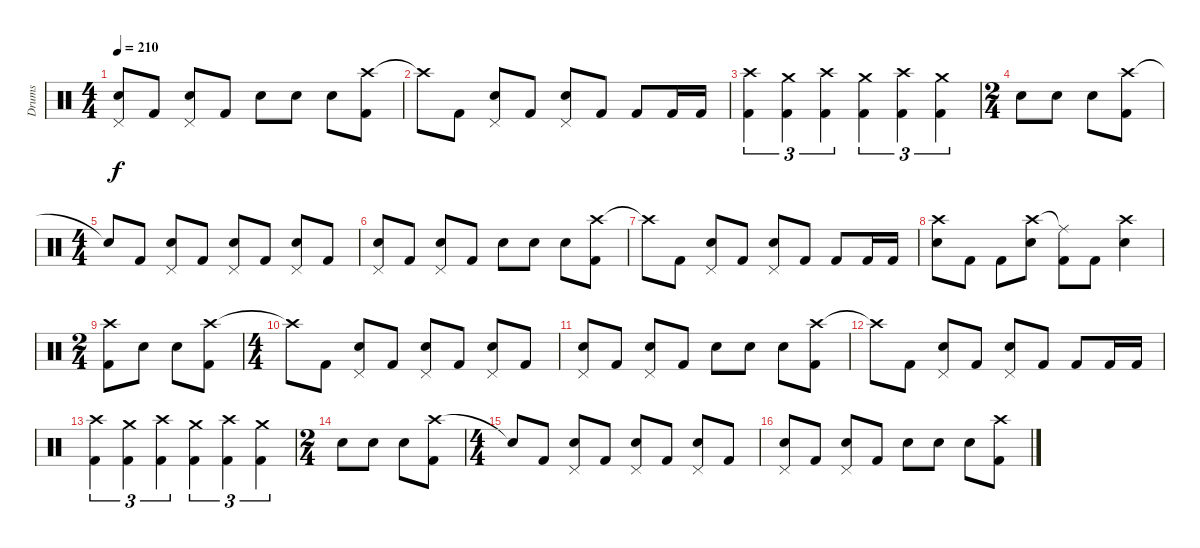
\track ("Drums" "Drums") {instrument percussion}
\staff {score}
\articulation defaults
\ts (4 4)
\tempo 210
\clef neutral
\ks c
("Pedal Hi-Hat (hit)" "Electric Snare (hit)").8{dy f} "Kick (hit) 2".8 ("Pedal Hi-Hat (hit)" "Electric Snare (hit)").8 "Kick (hit) 2".8 "Electric Snare (hit)".8 "Electric Snare (hit)".8 "Electric Snare (hit)".8 ("Crash high (hit)" "Kick (hit) 2").8 |
"Crash high (hit)"{t}.8 "Kick (hit) 2".8 ("Pedal Hi-Hat (hit)" "Electric Snare (hit)").8 "Kick (hit) 2".8 ("Pedal Hi-Hat (hit)" "Electric Snare (hit)").8 "Kick (hit) 2".8 "Kick (hit) 2".8 "Kick (hit) 2".16 "Kick (hit) 2".16 |
("Crash high (hit)" "Kick (hit) 2").4{tu (3 2)} ("Crash medium (hit)" "Kick (hit) 2").4{tu (3 2)} ("Crash high (hit)" "Kick (hit) 2").4{tu (3 2)} ("Crash medium (hit)" "Kick (hit) 2").4{tu (3 2)} ("Crash high (hit)" "Kick (hit) 2").4{tu (3 2)} ("Crash medium (hit)" "Kick (hit) 2").4{tu (3 2)} |
\ts (2 4)
"Electric Snare (hit)".8 "Electric Snare (hit)".8 "Electric Snare (hit)".8 ("Crash high (hit)" "Kick (hit) 2").8 |
\ts (4 4)
"Snare (hit)"{t}.8 "Kick (hit) 2".8 ("Pedal Hi-Hat (hit)" "Electric Snare (hit)").8 "Kick (hit) 2".8 ("Pedal Hi-Hat (hit)" "Electric Snare (hit)").8 "Kick (hit) 2".8 ("Pedal Hi-Hat (hit)" "Electric Snare (hit)").8 "Kick (hit) 2".8 |
("Pedal Hi-Hat (hit)" "Electric Snare (hit)").8 "Kick (hit) 2".8 ("Pedal Hi-Hat (hit)" "Electric Snare (hit)").8 "Kick (hit) 2".8 "Electric Snare (hit)".8 "Electric Snare (hit)".8 "Electric Snare (hit)".8 ("Crash high (hit)" "Kick (hit) 2").8 |
"Crash high (hit)"{t}.8 "Kick (hit) 2".8 ("Pedal Hi-Hat (hit)" "Electric Snare (hit)").8 "Kick (hit) 2".8 ("Pedal Hi-Hat (hit)" "Electric Snare (hit)").8 "Kick (hit) 2".8 "Kick (hit) 2".8 "Kick (hit) 2".16 "Kick (hit) 2".16 |
("Crash high (hit)" "Electric Snare (hit)").8 "Kick (hit) 2".8 "Kick (hit) 2".8 ("Crash high (hit)" "Electric Snare (hit)").8 ("Ride (middle)"{t} "Kick (hit) 2").8 "Kick (hit) 2".8 ("Crash high (hit)" "Electric Snare (hit)").4 |
\ts (2 4)
("Crash high (hit)" "Kick (hit) 2").8 "Electric Snare (hit)".8 "Electric Snare (hit)".8 ("Crash high (hit)" "Kick (hit) 2").8 |
\ts (4 4)
"Crash high (hit)"{t}.8 "Kick (hit) 2".8 ("Pedal Hi-Hat (hit)" "Electric Snare (hit)").8 "Kick (hit) 2".8 ("Pedal Hi-Hat (hit)" "Electric Snare (hit)").8 "Kick (hit) 2".8 ("Pedal Hi-Hat (hit)" "Electric Snare (hit)").8 "Kick (hit) 2".8 |
("Pedal Hi-Hat (hit)" "Electric Snare (hit)").8 "Kick (hit) 2".8 ("Pedal Hi-Hat (hit)" "Electric Snare (hit)").8 "Kick (hit) 2".8 "Electric Snare (hit)".8 "Electric Snare (hit)".8 "Electric Snare (hit)".8 ("Crash high (hit)" "Kick (hit) 2").8 |
"Crash high (hit)"{t}.8 "Kick (hit) 2".8 ("Pedal Hi-Hat (hit)" "Electric Snare (hit)").8 "Kick (hit) 2".8 ("Pedal Hi-Hat (hit)" "Electric Snare (hit)").8 "Kick (hit) 2".8 "Kick (hit) 2".8 "Kick (hit) 2".16 "Kick (hit) 2".16 |
("Crash high (hit)" "Kick (hit) 2").4{tu (3 2)} ("Crash medium (hit)" "Kick (hit) 2").4{tu (3 2)} ("Crash high (hit)" "Kick (hit) 2").4{tu (3 2)} ("Crash medium (hit)" "Kick (hit) 2").4{tu (3 2)} ("Crash high (hit)" "Kick (hit) 2").4{tu (3 2)} ("Crash medium (hit)" "Kick (hit) 2").4{tu (3 2)} |
\ts (2 4)
"Electric Snare (hit)".8 "Electric Snare (hit)".8 "Electric Snare (hit)".8 ("Crash high (hit)" "Kick (hit) 2").8 |
\ts (4 4)
"Snare (hit)"{t}.8 "Kick (hit) 2".8 ("Pedal Hi-Hat (hit)" "Electric Snare (hit)").8 "Kick (hit) 2".8 ("Pedal Hi-Hat (hit)" "Electric Snare (hit)").8 "Kick (hit) 2".8 ("Pedal Hi-Hat (hit)" "Electric Snare (hit)").8 "Kick (hit) 2".8 |
("Pedal Hi-Hat (hit)" "Electric Snare (hit)").8 "Kick (hit) 2".8 ("Pedal Hi-Hat (hit)" "Electric Snare (hit)").8 "Kick (hit) 2".8 "Electric Snare (hit)".8 "Electric Snare (hit)".8 "Electric Snare (hit)".8 ("Crash high (hit)" "Kick (hit) 2").8
